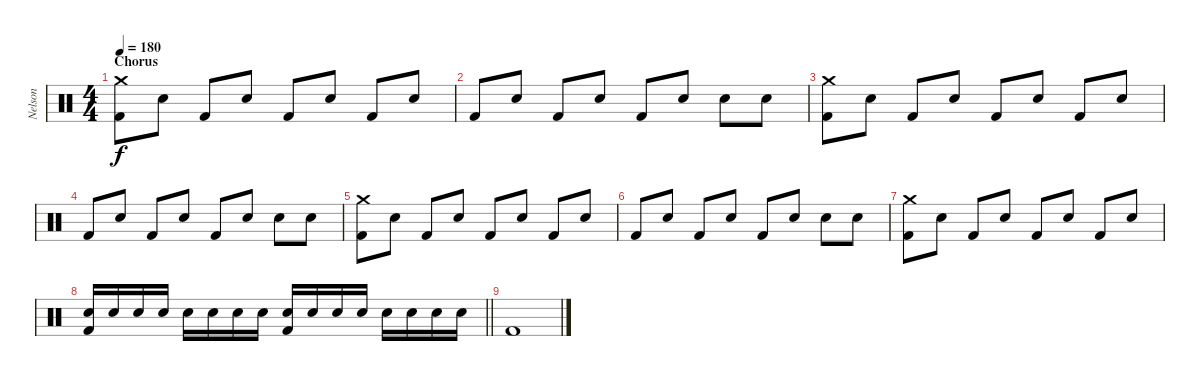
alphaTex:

\track ("Nelson" "Nelson") {instrument percussion}
\staff {score}
\articulation defaults
\ts (4 4)
\section ("" "Chorus")
\tempo 180
\clef neutral
\ks c
("Crash medium (hit)" "Kick (hit) 2").8{dy f} "Electric Snare (hit)".8 "Kick (hit) 2".8 "Electric Snare (hit)".8 "Kick (hit) 2".8 "Electric Snare (hit)".8 "Kick (hit) 2".8 "Electric Snare (hit)".8 |
"Kick (hit) 2".8 "Electric Snare (hit)".8 "Kick (hit) 2".8 "Electric Snare (hit)".8 "Kick (hit) 2".8 "Electric Snare (hit)".8 "Electric Snare (hit)".8 "Electric Snare (hit)".8 |
("Crash medium (hit)" "Kick (hit) 2").8 "Electric Snare (hit)".8 "Kick (hit) 2".8 "Electric Snare (hit)".8 "Kick (hit) 2".8 "Electric Snare (hit)".8 "Kick (hit) 2".8 "Electric Snare (hit)".8 |
"Kick (hit) 2".8 "Electric Snare (hit)".8 "Kick (hit) 2".8 "Electric Snare (hit)".8 "Kick (hit) 2".8 "Electric Snare (hit)".8 "Electric Snare (hit)".8 "Electric Snare (hit)".8 |
("Crash medium (hit)" "Kick (hit) 2").8 "Electric Snare (hit)".8 "Kick (hit) 2".8 "Electric Snare (hit)".8 "Kick (hit) 2".8 "Electric Snare (hit)".8 "Kick (hit) 2".8 "Electric Snare (hit)".8 |
"Kick (hit) 2".8 "Electric Snare (hit)".8 "Kick (hit) 2".8 "Electric Snare (hit)".8 "Kick (hit) 2".8 "Electric Snare (hit)".8 "Electric Snare (hit)".8 "Electric Snare (hit)".8 |
("Crash medium (hit)" "Kick (hit) 2").8 "Electric Snare (hit)".8 "Kick (hit) 2".8 "Electric Snare (hit)".8 "Kick (hit) 2".8 "Electric Snare (hit)".8 "Kick (hit) 2".8 "Electric Snare (hit)".8 |
\barLineRight lightlight
("Electric Snare (hit)" "Kick (hit) 2").16 "Electric Snare (hit)".16 "Electric Snare (hit)".16 "Electric Snare (hit)".16 "Electric Snare (hit)".16 "Electric Snare (hit)".16 "Electric Snare (hit)".16 "Electric Snare (hit)".16 ("Electric Snare (hit)" "Kick (hit) 2").16 "Electric Snare (hit)".16 "Electric Snare (hit)".16 "Electric Snare (hit)".16 "Electric Snare (hit)".16 "Electric Snare (hit)".16 "Electric Snare (hit)".16 "Electric Snare (hit)".16 |
"Kick (hit) 2".1
